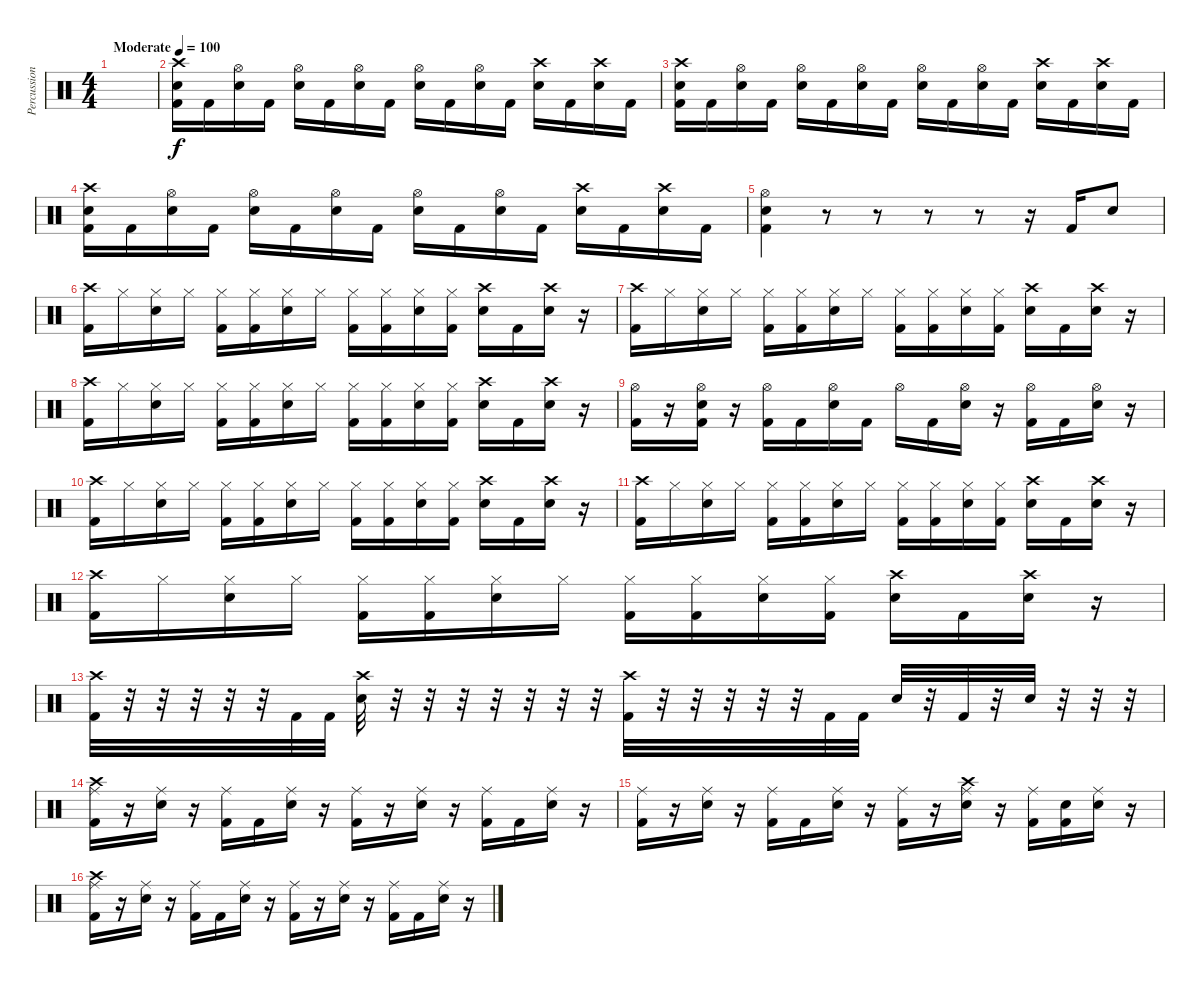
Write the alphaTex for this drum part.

\track ("Percussion" "Percussion") {instrument percussion}
\staff {score}
\articulation defaults
\ts (4 4)
\tempo (100 "Moderate")
\clef neutral
\ks c
|
("Crash high (hit)" "Snare (hit) 2" "Kick (hit) 2").16 "Kick (hit) 2".16 ("Hi-Hat (open)" "Snare (hit) 2").16 "Kick (hit) 2".16 ("Hi-Hat (open)" "Snare (hit) 2").16 "Kick (hit) 2".16 ("Hi-Hat (open)" "Snare (hit) 2").16 "Kick (hit) 2".16 ("Hi-Hat (open)" "Snare (hit) 2").16 "Kick (hit) 2".16 ("Hi-Hat (open)" "Snare (hit) 2").16 "Kick (hit) 2".16 ("Crash high (hit)" "Snare (hit) 2").16 "Kick (hit) 2".16 ("Crash high (hit)" "Snare (hit) 2").16 "Kick (hit) 2".16 |
("Crash high (hit)" "Snare (hit) 2" "Kick (hit) 2").16 "Kick (hit) 2".16 ("Hi-Hat (open)" "Snare (hit) 2").16 "Kick (hit) 2".16 ("Hi-Hat (open)" "Snare (hit) 2").16 "Kick (hit) 2".16 ("Hi-Hat (open)" "Snare (hit) 2").16 "Kick (hit) 2".16 ("Hi-Hat (open)" "Snare (hit) 2").16 "Kick (hit) 2".16 ("Hi-Hat (open)" "Snare (hit) 2").16 "Kick (hit) 2".16 ("Crash high (hit)" "Snare (hit) 2").16 "Kick (hit) 2".16 ("Crash high (hit)" "Snare (hit) 2").16 "Kick (hit) 2".16 |
("Crash high (hit)" "Snare (hit) 2" "Kick (hit) 2").16 "Kick (hit) 2".16 ("Hi-Hat (open)" "Snare (hit) 2").16 "Kick (hit) 2".16 ("Hi-Hat (open)" "Snare (hit) 2").16 "Kick (hit) 2".16 ("Hi-Hat (open)" "Snare (hit) 2").16 "Kick (hit) 2".16 ("Hi-Hat (open)" "Snare (hit) 2").16 "Kick (hit) 2".16 ("Hi-Hat (open)" "Snare (hit) 2").16 "Kick (hit) 2".16 ("Crash high (hit)" "Snare (hit) 2").16 "Kick (hit) 2".16 ("Crash high (hit)" "Snare (hit) 2").16 "Kick (hit) 2".16 |
("Hi-Hat (open)" "Snare (hit) 2" "Kick (hit) 2").4 r.8 r.8 r.8 r.8 r.16 "Kick (hit) 2".16 "Snare (hit) 2".8 |
("Crash high (hit)" "Kick (hit) 2").16 "Hi-Hat (closed)".16 ("Hi-Hat (closed)" "Snare (hit) 2").16 "Hi-Hat (closed)".16 ("Hi-Hat (closed)" "Kick (hit) 2").16 ("Hi-Hat (closed)" "Kick (hit) 2").16 ("Hi-Hat (closed)" "Snare (hit) 2").16 "Hi-Hat (closed)".16 ("Hi-Hat (closed)" "Kick (hit) 2").16 ("Hi-Hat (closed)" "Kick (hit) 2").16 ("Hi-Hat (closed)" "Snare (hit) 2").16 ("Hi-Hat (closed)" "Kick (hit) 2").16 ("Crash high (hit)" "Snare (hit) 2").16 "Kick (hit) 2".16 ("Crash high (hit)" "Snare (hit) 2").16 r.16 |
("Crash high (hit)" "Kick (hit) 2").16 "Hi-Hat (closed)".16 ("Hi-Hat (closed)" "Snare (hit) 2").16 "Hi-Hat (closed)".16 ("Hi-Hat (closed)" "Kick (hit) 2").16 ("Hi-Hat (closed)" "Kick (hit) 2").16 ("Hi-Hat (closed)" "Snare (hit) 2").16 "Hi-Hat (closed)".16 ("Hi-Hat (closed)" "Kick (hit) 2").16 ("Hi-Hat (closed)" "Kick (hit) 2").16 ("Hi-Hat (closed)" "Snare (hit) 2").16 ("Hi-Hat (closed)" "Kick (hit) 2").16 ("Crash high (hit)" "Snare (hit) 2").16 "Kick (hit) 2".16 ("Crash high (hit)" "Snare (hit) 2").16 r.16 |
("Crash high (hit)" "Kick (hit) 2").16 "Hi-Hat (closed)".16 ("Hi-Hat (closed)" "Snare (hit) 2").16 "Hi-Hat (closed)".16 ("Hi-Hat (closed)" "Kick (hit) 2").16 ("Hi-Hat (closed)" "Kick (hit) 2").16 ("Hi-Hat (closed)" "Snare (hit) 2").16 "Hi-Hat (closed)".16 ("Hi-Hat (closed)" "Kick (hit) 2").16 ("Hi-Hat (closed)" "Kick (hit) 2").16 ("Hi-Hat (closed)" "Snare (hit) 2").16 ("Hi-Hat (closed)" "Kick (hit) 2").16 ("Crash high (hit)" "Snare (hit) 2").16 "Kick (hit) 2".16 ("Crash high (hit)" "Snare (hit) 2").16 r.16 |
("Hi-Hat (open)" "Kick (hit) 2").16 r.16 ("Hi-Hat (open)" "Snare (hit) 2" "Kick (hit) 2").16 r.16 ("Hi-Hat (open)" "Kick (hit) 2").16 "Kick (hit) 2".16 ("Hi-Hat (open)" "Snare (hit) 2").16 "Kick (hit) 2".16 "Hi-Hat (open)".16 "Kick (hit) 2".16 ("Hi-Hat (open)" "Snare (hit) 2").16 r.16 ("Hi-Hat (open)" "Kick (hit) 2").16 "Kick (hit) 2".16 ("Hi-Hat (open)" "Snare (hit) 2").16 r.16 |
("Crash high (hit)" "Kick (hit) 2").16 "Hi-Hat (closed)".16 ("Hi-Hat (closed)" "Snare (hit) 2").16 "Hi-Hat (closed)".16 ("Hi-Hat (closed)" "Kick (hit) 2").16 ("Hi-Hat (closed)" "Kick (hit) 2").16 ("Hi-Hat (closed)" "Snare (hit) 2").16 "Hi-Hat (closed)".16 ("Hi-Hat (closed)" "Kick (hit) 2").16 ("Hi-Hat (closed)" "Kick (hit) 2").16 ("Hi-Hat (closed)" "Snare (hit) 2").16 ("Hi-Hat (closed)" "Kick (hit) 2").16 ("Crash high (hit)" "Snare (hit) 2").16 "Kick (hit) 2".16 ("Crash high (hit)" "Snare (hit) 2").16 r.16 |
("Crash high (hit)" "Kick (hit) 2").16 "Hi-Hat (closed)".16 ("Hi-Hat (closed)" "Snare (hit) 2").16 "Hi-Hat (closed)".16 ("Hi-Hat (closed)" "Kick (hit) 2").16 ("Hi-Hat (closed)" "Kick (hit) 2").16 ("Hi-Hat (closed)" "Snare (hit) 2").16 "Hi-Hat (closed)".16 ("Hi-Hat (closed)" "Kick (hit) 2").16 ("Hi-Hat (closed)" "Kick (hit) 2").16 ("Hi-Hat (closed)" "Snare (hit) 2").16 ("Hi-Hat (closed)" "Kick (hit) 2").16 ("Crash high (hit)" "Snare (hit) 2").16 "Kick (hit) 2".16 ("Crash high (hit)" "Snare (hit) 2").16 r.16 |
("Crash high (hit)" "Kick (hit) 2").16 "Hi-Hat (closed)".16 ("Hi-Hat (closed)" "Snare (hit) 2").16 "Hi-Hat (closed)".16 ("Hi-Hat (closed)" "Kick (hit) 2").16 ("Hi-Hat (closed)" "Kick (hit) 2").16 ("Hi-Hat (closed)" "Snare (hit) 2").16 "Hi-Hat (closed)".16 ("Hi-Hat (closed)" "Kick (hit) 2").16 ("Hi-Hat (closed)" "Kick (hit) 2").16 ("Hi-Hat (closed)" "Snare (hit) 2").16 ("Hi-Hat (closed)" "Kick (hit) 2").16 ("Crash high (hit)" "Snare (hit) 2").16 "Kick (hit) 2".16 ("Crash high (hit)" "Snare (hit) 2").16 r.16 |
("Crash high (hit)" "Kick (hit) 2").32 r.32 r.32 r.32 r.32 r.32 "Kick (hit) 2".32 "Kick (hit) 2".32 ("Crash high (hit)" "Snare (hit) 2").32 r.32 r.32 r.32 r.32 r.32 r.32 r.32 ("Crash high (hit)" "Kick (hit) 2").32 r.32 r.32 r.32 r.32 r.32 "Kick (hit) 2".32 "Kick (hit) 2".32 "Snare (hit) 2".32 r.32 "Kick (hit) 2".32 r.32 "Snare (hit) 2".32 r.32 r.32 r.32 |
("Crash high (hit)" "Ride (middle)" "Kick (hit) 2").16 r.16 ("Ride (middle)" "Snare (hit) 2").16 r.16 ("Ride (middle)" "Kick (hit) 2").16 "Kick (hit) 2".16 ("Ride (middle)" "Snare (hit) 2").16 r.16 ("Ride (middle)" "Kick (hit) 2").16 r.16 ("Ride (middle)" "Snare (hit) 2").16 r.16 ("Ride (middle)" "Kick (hit) 2").16 "Kick (hit) 2".16 ("Ride (middle)" "Snare (hit) 2").16 r.16 |
("Ride (middle)" "Kick (hit) 2").16 r.16 ("Ride (middle)" "Snare (hit) 2").16 r.16 ("Ride (middle)" "Kick (hit) 2").16 "Kick (hit) 2".16 ("Ride (middle)" "Snare (hit) 2").16 r.16 ("Ride (middle)" "Kick (hit) 2").16 r.16 ("Crash high (hit)" "Ride (middle)" "Snare (hit) 2").16 r.16 ("Ride (middle)" "Kick (hit) 2").16 ("Snare (hit) 2" "Kick (hit) 2").16 ("Ride (middle)" "Snare (hit) 2").16 r.16 |
("Crash high (hit)" "Ride (middle)" "Kick (hit) 2").16 r.16 ("Ride (middle)" "Snare (hit) 2").16 r.16 ("Ride (middle)" "Kick (hit) 2").16 "Kick (hit) 2".16 ("Ride (middle)" "Snare (hit) 2").16 r.16 ("Ride (middle)" "Kick (hit) 2").16 r.16 ("Ride (middle)" "Snare (hit) 2").16 r.16 ("Ride (middle)" "Kick (hit) 2").16 "Kick (hit) 2".16 ("Ride (middle)" "Snare (hit) 2").16 r.16
